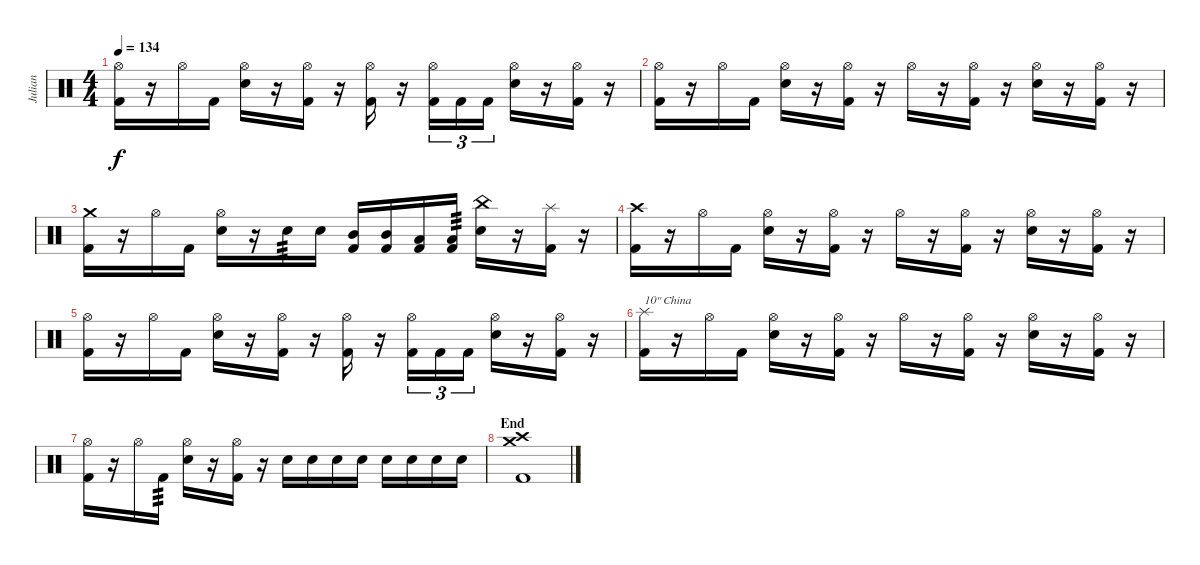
\track ("Julian" "Julian") {instrument percussion}
\staff {score}
\articulation defaults
\ts (4 4)
\tempo 134
\clef neutral
\ks c
("Hi-Hat (open)" "Kick (hit) 2").16{dy f} r.16 "Hi-Hat (open)".16 "Kick (hit) 2".16 ("Hi-Hat (open)" "Electric Snare (hit)").16 r.16 ("Hi-Hat (open)" "Kick (hit) 2").16 r.16 ("Hi-Hat (open)" "Kick (hit) 2").16 r.16 ("Hi-Hat (open)" "Kick (hit) 2").16{tu (3 2)} "Kick (hit) 2".16{tu (3 2)} "Kick (hit) 2".16{tu (3 2)} ("Hi-Hat (open)" "Electric Snare (hit)").16 r.16 ("Hi-Hat (open)" "Kick (hit) 2").16 r.16 |
("Hi-Hat (open)" "Kick (hit) 2").16 r.16 "Hi-Hat (open)".16 "Kick (hit) 2".16 ("Hi-Hat (open)" "Electric Snare (hit)").16 r.16 ("Hi-Hat (open)" "Kick (hit) 2").16 r.16 "Hi-Hat (open)".16 r.16 ("Hi-Hat (open)" "Kick (hit) 2").16 r.16 ("Hi-Hat (open)" "Electric Snare (hit)").16 r.16 ("Hi-Hat (open)" "Kick (hit) 2").16 r.16 |
("Crash medium (hit)" "Kick (hit) 2").16 r.16 "Hi-Hat (open)".16 "Kick (hit) 2".16 ("Hi-Hat (open)" "Electric Snare (hit)").16 r.16 "Electric Snare (hit)".16{tp 3} "Electric Snare (hit)".16 ("Mid Tom (hit)" "Kick (hit) 2").16 ("Mid Tom (hit)" "Kick (hit) 2").16 ("Low Tom (hit)" "Kick (hit) 2").16 ("Low Tom (hit)" "Kick (hit) 2").16{tp 3} ("China (hit)" "Electric Snare (hit)").16 r.16 ("Splash (hit)" "Kick (hit) 2").16 r.16 |
("Crash high (hit)" "Kick (hit) 2").16 r.16 "Hi-Hat (open)".16 "Kick (hit) 2".16 ("Hi-Hat (open)" "Electric Snare (hit)").16 r.16 ("Hi-Hat (open)" "Kick (hit) 2").16 r.16 "Hi-Hat (open)".16 r.16 ("Hi-Hat (open)" "Kick (hit) 2").16 r.16 ("Hi-Hat (open)" "Electric Snare (hit)").16 r.16 ("Hi-Hat (open)" "Kick (hit) 2").16 r.16 |
("Hi-Hat (open)" "Kick (hit) 2").16 r.16 "Hi-Hat (open)".16 "Kick (hit) 2".16 ("Hi-Hat (open)" "Electric Snare (hit)").16 r.16 ("Hi-Hat (open)" "Kick (hit) 2").16 r.16 ("Hi-Hat (open)" "Kick (hit) 2").16 r.16 ("Hi-Hat (open)" "Kick (hit) 2").16{tu (3 2)} "Kick (hit) 2".16{tu (3 2)} "Kick (hit) 2".16{tu (3 2)} ("Hi-Hat (open)" "Electric Snare (hit)").16 r.16 ("Hi-Hat (open)" "Kick (hit) 2").16 r.16 |
("Splash (hit)" "Kick (hit) 2").16{txt "10\" China"} r.16 "Hi-Hat (open)".16 "Kick (hit) 2".16 ("Hi-Hat (open)" "Electric Snare (hit)").16 r.16 ("Hi-Hat (open)" "Kick (hit) 2").16 r.16 "Hi-Hat (open)".16 r.16 ("Hi-Hat (open)" "Kick (hit) 2").16 r.16 ("Hi-Hat (open)" "Electric Snare (hit)").16 r.16 ("Hi-Hat (open)" "Kick (hit) 2").16 r.16 |
("Hi-Hat (open)" "Kick (hit) 2").16 r.16 "Hi-Hat (open)".16 "Kick (hit) 2".16{tp 3} ("Hi-Hat (open)" "Electric Snare (hit)").16 r.16 ("Hi-Hat (open)" "Kick (hit) 2").16 r.16 "Electric Snare (hit)".16 "Electric Snare (hit)".16 "Electric Snare (hit)".16 "Electric Snare (hit)".16 "Electric Snare (hit)".16 "Electric Snare (hit)".16 "Electric Snare (hit)".16 "Electric Snare (hit)".16 |
\section ("" "End")
("Crash high (hit)" "Crash medium (hit)" "Kick (hit) 2").1
